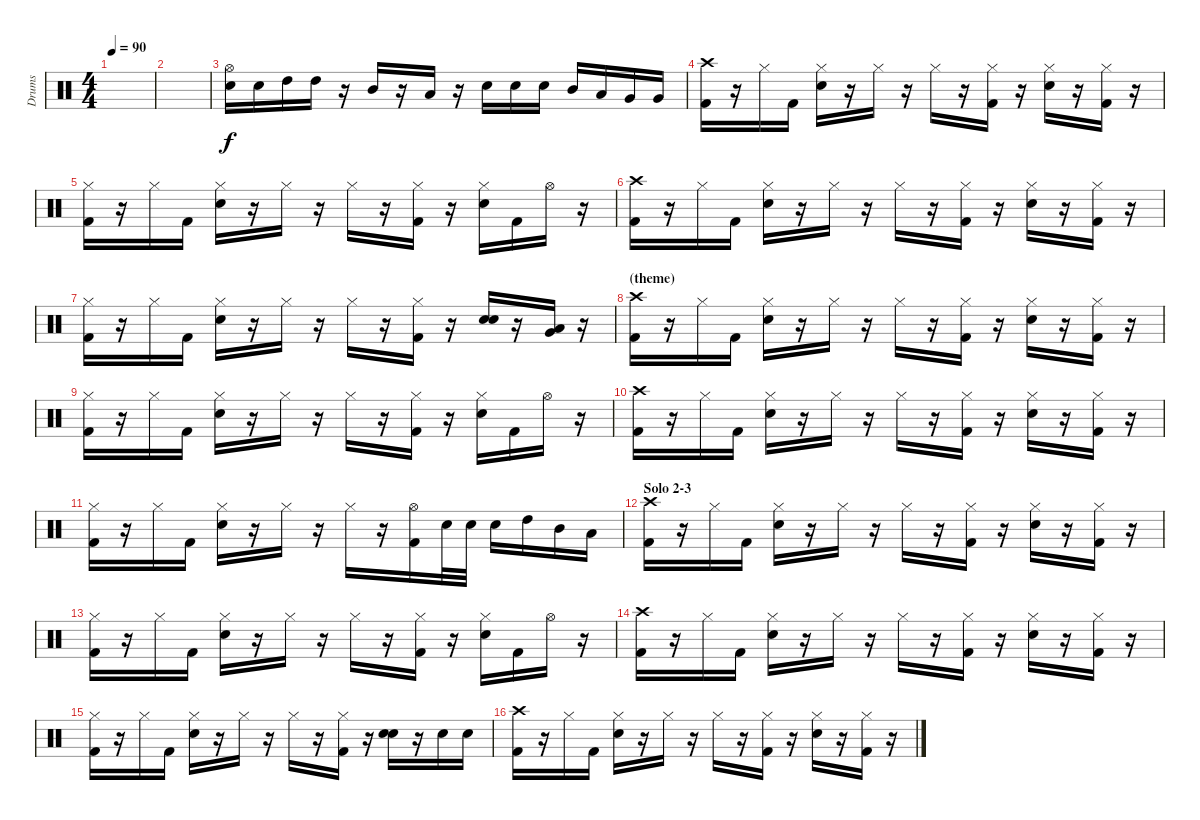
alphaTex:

\track ("Drums" "Drums") {instrument percussion}
\staff {score}
\articulation defaults
\ts (4 4)
\tempo 90
\clef neutral
\ks c
|
|
("Hi-Hat (open)" "Electric Snare (hit)").16 "Electric Snare (hit)".16 "High Tom (hit)".16 "High Tom (hit)".16 r.16 "Mid Tom (hit)".16 r.16 "Low Tom (hit)".16 r.16 "Electric Snare (hit)".16 "Electric Snare (hit)".16 "Electric Snare (hit)".16 "Mid Tom (hit)".16 "Low Tom (hit)".16 "Very Low Tom (hit)".16 "Very Low Tom (hit)".16 |
("Crash high (hit)" "Kick (hit) 2").16 r.16 "Hi-Hat (closed)".16 "Kick (hit) 2".16 ("Hi-Hat (closed)" "Electric Snare (hit)").16 r.16 "Hi-Hat (closed)".16 r.16 "Hi-Hat (closed)".16 r.16 ("Hi-Hat (closed)" "Kick (hit) 2").16 r.16 ("Hi-Hat (closed)" "Electric Snare (hit)").16 r.16 ("Hi-Hat (closed)" "Kick (hit) 2").16 r.16 |
("Hi-Hat (closed)" "Kick (hit) 2").16 r.16 "Hi-Hat (closed)".16 "Kick (hit) 2".16 ("Hi-Hat (closed)" "Electric Snare (hit)").16 r.16 "Hi-Hat (closed)".16 r.16 "Hi-Hat (closed)".16 r.16 ("Hi-Hat (closed)" "Kick (hit) 2").16 r.16 ("Hi-Hat (closed)" "Electric Snare (hit)").16 "Kick (hit) 2".16 "Hi-Hat (open)".16 r.16 |
("Crash high (hit)" "Kick (hit) 2").16 r.16 "Hi-Hat (closed)".16 "Kick (hit) 2".16 ("Hi-Hat (closed)" "Electric Snare (hit)").16 r.16 "Hi-Hat (closed)".16 r.16 "Hi-Hat (closed)".16 r.16 ("Hi-Hat (closed)" "Kick (hit) 2").16 r.16 ("Hi-Hat (closed)" "Electric Snare (hit)").16 r.16 ("Hi-Hat (closed)" "Kick (hit) 2").16 r.16 |
("Hi-Hat (closed)" "Kick (hit) 2").16 r.16 "Hi-Hat (closed)".16 "Kick (hit) 2".16 ("Hi-Hat (closed)" "Electric Snare (hit)").16 r.16 "Hi-Hat (closed)".16 r.16 "Hi-Hat (closed)".16 r.16 ("Hi-Hat (closed)" "Kick (hit) 2").16 r.16 ("Electric Snare (hit)" "Electric Snare (hit)").16{bd 120} r.16 ("Very Low Tom (hit)" "Low Tom (hit)").16{bd 120} r.16 |
\section ("" "(theme)")
("Crash high (hit)" "Kick (hit) 2").16 r.16 "Hi-Hat (closed)".16 "Kick (hit) 2".16 ("Hi-Hat (closed)" "Electric Snare (hit)").16 r.16 "Hi-Hat (closed)".16 r.16 "Hi-Hat (closed)".16 r.16 ("Hi-Hat (closed)" "Kick (hit) 2").16 r.16 ("Hi-Hat (closed)" "Electric Snare (hit)").16 r.16 ("Hi-Hat (closed)" "Kick (hit) 2").16 r.16 |
("Hi-Hat (closed)" "Kick (hit) 2").16 r.16 "Hi-Hat (closed)".16 "Kick (hit) 2".16 ("Hi-Hat (closed)" "Electric Snare (hit)").16 r.16 "Hi-Hat (closed)".16 r.16 "Hi-Hat (closed)".16 r.16 ("Hi-Hat (closed)" "Kick (hit) 2").16 r.16 ("Hi-Hat (closed)" "Electric Snare (hit)").16 "Kick (hit) 2".16 "Hi-Hat (open)".16 r.16 |
("Crash high (hit)" "Kick (hit) 2").16 r.16 "Hi-Hat (closed)".16 "Kick (hit) 2".16 ("Hi-Hat (closed)" "Electric Snare (hit)").16 r.16 "Hi-Hat (closed)".16 r.16 "Hi-Hat (closed)".16 r.16 ("Hi-Hat (closed)" "Kick (hit) 2").16 r.16 ("Hi-Hat (closed)" "Electric Snare (hit)").16 r.16 ("Hi-Hat (closed)" "Kick (hit) 2").16 r.16 |
("Hi-Hat (closed)" "Kick (hit) 2").16 r.16 "Hi-Hat (closed)".16 "Kick (hit) 2".16 ("Hi-Hat (closed)" "Electric Snare (hit)").16 r.16 "Hi-Hat (closed)".16 r.16 "Hi-Hat (closed)".16 r.16 ("Hi-Hat (open)" "Kick (hit) 2").16 "Electric Snare (hit)".32 "Electric Snare (hit)".32 "Electric Snare (hit)".16 "High Tom (hit)".16 "Mid Tom (hit)".16 "Low Tom (hit)".16 |
\section ("" "Solo 2-3")
("Crash high (hit)" "Kick (hit) 2").16 r.16 "Hi-Hat (closed)".16 "Kick (hit) 2".16 ("Hi-Hat (closed)" "Electric Snare (hit)").16 r.16 "Hi-Hat (closed)".16 r.16 "Hi-Hat (closed)".16 r.16 ("Hi-Hat (closed)" "Kick (hit) 2").16 r.16 ("Hi-Hat (closed)" "Electric Snare (hit)").16 r.16 ("Hi-Hat (closed)" "Kick (hit) 2").16 r.16 |
("Hi-Hat (closed)" "Kick (hit) 2").16 r.16 "Hi-Hat (closed)".16 "Kick (hit) 2".16 ("Hi-Hat (closed)" "Electric Snare (hit)").16 r.16 "Hi-Hat (closed)".16 r.16 "Hi-Hat (closed)".16 r.16 ("Hi-Hat (closed)" "Kick (hit) 2").16 r.16 ("Hi-Hat (closed)" "Electric Snare (hit)").16 "Kick (hit) 2".16 "Hi-Hat (open)".16 r.16 |
("Crash high (hit)" "Kick (hit) 2").16 r.16 "Hi-Hat (closed)".16 "Kick (hit) 2".16 ("Hi-Hat (closed)" "Electric Snare (hit)").16 r.16 "Hi-Hat (closed)".16 r.16 "Hi-Hat (closed)".16 r.16 ("Hi-Hat (closed)" "Kick (hit) 2").16 r.16 ("Hi-Hat (closed)" "Electric Snare (hit)").16 r.16 ("Hi-Hat (closed)" "Kick (hit) 2").16 r.16 |
("Hi-Hat (closed)" "Kick (hit) 2").16 r.16 "Hi-Hat (closed)".16 "Kick (hit) 2".16 ("Hi-Hat (closed)" "Electric Snare (hit)").16 r.16 "Hi-Hat (closed)".16 r.16 "Hi-Hat (closed)".16 r.16 ("Hi-Hat (closed)" "Kick (hit) 2").16 r.16 ("Electric Snare (hit)" "Electric Snare (hit)").16{bd 120} r.16 "Electric Snare (hit)".16 "Electric Snare (hit)".16 |
("Crash high (hit)" "Kick (hit) 2").16 r.16 "Hi-Hat (closed)".16 "Kick (hit) 2".16 ("Hi-Hat (closed)" "Electric Snare (hit)").16 r.16 "Hi-Hat (closed)".16 r.16 "Hi-Hat (closed)".16 r.16 ("Hi-Hat (closed)" "Kick (hit) 2").16 r.16 ("Hi-Hat (closed)" "Electric Snare (hit)").16 r.16 ("Hi-Hat (closed)" "Kick (hit) 2").16 r.16
